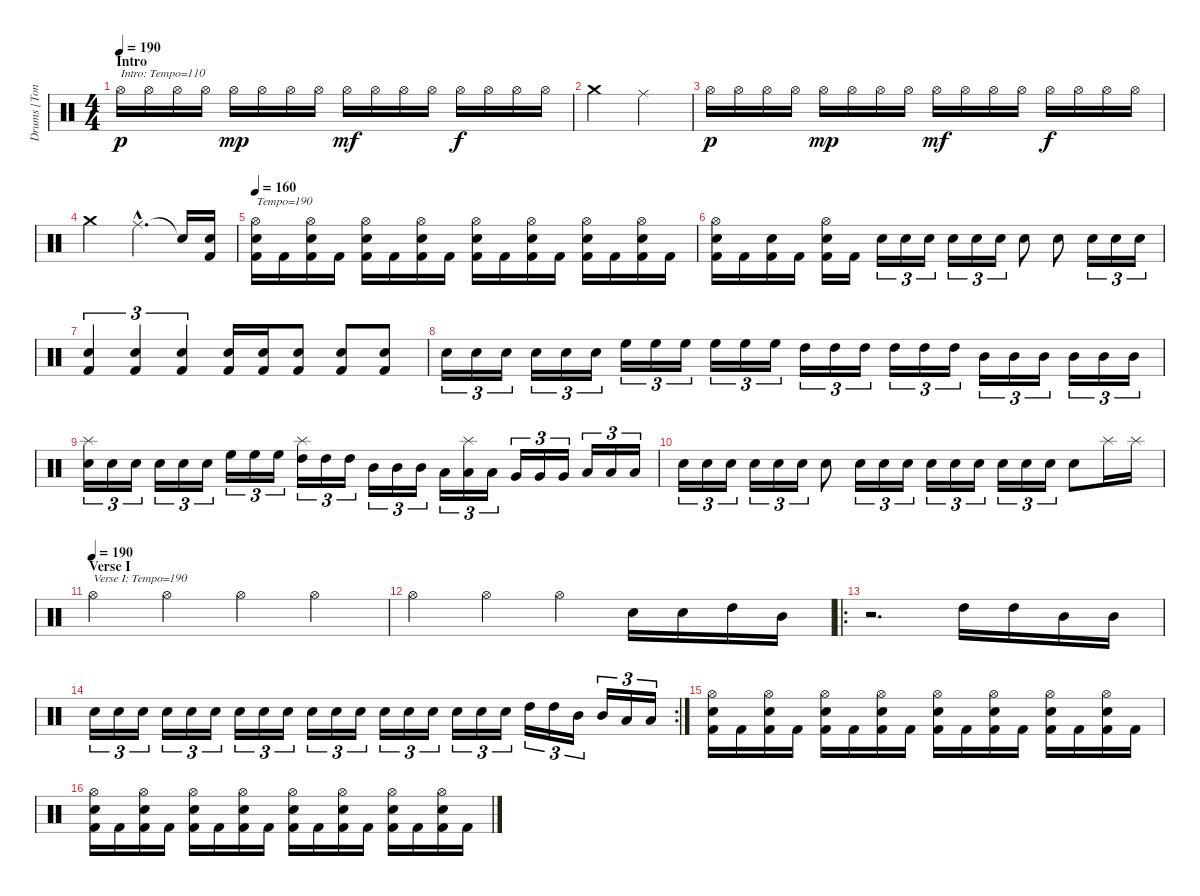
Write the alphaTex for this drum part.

\track ("Drums [Tony Laureano]" "Drums [Ton") {instrument percussion}
\staff {score}
\articulation defaults
\ts (4 4)
\section ("" "Intro")
\tempo 190
\tempo 110
\tempo 190
\clef neutral
\ks c "Hi-Hat (open)".16{txt "Intro: Tempo=110" dy p} "Hi-Hat (open)".16 "Hi-Hat (open)".16 "Hi-Hat (open)".16 "Hi-Hat (open)".16{dy mp} "Hi-Hat (open)".16 "Hi-Hat (open)".16 "Hi-Hat (open)".16 "Hi-Hat (open)".16{dy mf} "Hi-Hat (open)".16 "Hi-Hat (open)".16 "Hi-Hat (open)".16 "Hi-Hat (open)".16{dy f} "Hi-Hat (open)".16 "Hi-Hat (open)".16 "Hi-Hat (open)".16
|
"Crash medium (hit)".2 "Ride (middle)".2 |
"Hi-Hat (open)".16{dy p} "Hi-Hat (open)".16 "Hi-Hat (open)".16 "Hi-Hat (open)".16 "Hi-Hat (open)".16{dy mp} "Hi-Hat (open)".16 "Hi-Hat (open)".16 "Hi-Hat (open)".16 "Hi-Hat (open)".16{dy mf} "Hi-Hat (open)".16 "Hi-Hat (open)".16 "Hi-Hat (open)".16 "Hi-Hat (open)".16{dy f} "Hi-Hat (open)".16 "Hi-Hat (open)".16 "Hi-Hat (open)".16 |
"Crash medium (hit)".2 "Ride (middle)"{hac}.4{d} "Snare (hit)"{t}.16 ("Electric Snare (hit)" "Kick (hit) 2").16 |
\tempo 160
("Hi-Hat (open)" "Electric Snare (hit)" "Kick (hit) 2").16{txt "Tempo=190"} "Kick (hit) 2".16 ("Hi-Hat (open)" "Electric Snare (hit)" "Kick (hit) 2").16 "Kick (hit) 2".16 ("Hi-Hat (open)" "Electric Snare (hit)" "Kick (hit) 2").16 "Kick (hit) 2".16 ("Hi-Hat (open)" "Electric Snare (hit)" "Kick (hit) 2").16 "Kick (hit) 2".16 ("Hi-Hat (open)" "Electric Snare (hit)" "Kick (hit) 2").16 "Kick (hit) 2".16 ("Hi-Hat (open)" "Electric Snare (hit)" "Kick (hit) 2").16 "Kick (hit) 2".16 ("Hi-Hat (open)" "Electric Snare (hit)" "Kick (hit) 2").16 "Kick (hit) 2".16 ("Hi-Hat (open)" "Electric Snare (hit)" "Kick (hit) 2").16 "Kick (hit) 2".16 |
("Hi-Hat (open)" "Electric Snare (hit)" "Kick (hit) 2").16 "Kick (hit) 2".16 ("Electric Snare (hit)" "Kick (hit) 2").16 "Kick (hit) 2".16 ("Hi-Hat (open)" "Electric Snare (hit)" "Kick (hit) 2").16 "Kick (hit) 2".16 "Electric Snare (hit)".16{tu (3 2)} "Electric Snare (hit)".16{tu (3 2)} "Electric Snare (hit)".16{tu (3 2)} "Electric Snare (hit)".16{tu (3 2)} "Electric Snare (hit)".16{tu (3 2)} "Electric Snare (hit)".16{tu (3 2)} "Electric Snare (hit)".8 "Electric Snare (hit)".8 "Electric Snare (hit)".16{tu (3 2)} "Electric Snare (hit)".16{tu (3 2)} "Electric Snare (hit)".16{tu (3 2)} |
("Electric Snare (hit)" "Kick (hit) 2").4{tu (3 2)} ("Electric Snare (hit)" "Kick (hit) 2").4{tu (3 2)} ("Electric Snare (hit)" "Kick (hit) 2").4{tu (3 2)} ("Electric Snare (hit)" "Kick (hit) 2").16 ("Electric Snare (hit)" "Kick (hit) 2").16 ("Electric Snare (hit)" "Kick (hit) 2").8 ("Electric Snare (hit)" "Kick (hit) 2").8 ("Electric Snare (hit)" "Kick (hit) 2").8 |
"Electric Snare (hit)".16{tu (3 2)} "Electric Snare (hit)".16{tu (3 2)} "Electric Snare (hit)".16{tu (3 2)} "Electric Snare (hit)".16{tu (3 2)} "Electric Snare (hit)".16{tu (3 2)} "Electric Snare (hit)".16{tu (3 2)} "High Floor Tom (hit)".16{tu (3 2)} "High Floor Tom (hit)".16{tu (3 2)} "High Floor Tom (hit)".16{tu (3 2)} "High Floor Tom (hit)".16{tu (3 2)} "High Floor Tom (hit)".16{tu (3 2)} "High Floor Tom (hit)".16{tu (3 2)} "High Tom (hit)".16{tu (3 2)} "High Tom (hit)".16{tu (3 2)} "High Tom (hit)".16{tu (3 2)} "High Tom (hit)".16{tu (3 2)} "High Tom (hit)".16{tu (3 2)} "High Tom (hit)".16{tu (3 2)} "Mid Tom (hit)".16{tu (3 2)} "Mid Tom (hit)".16{tu (3 2)} "Mid Tom (hit)".16{tu (3 2)} "Mid Tom (hit)".16{tu (3 2)} "Mid Tom (hit)".16{tu (3 2)} "Mid Tom (hit)".16{tu (3 2)} |
("Splash (hit)" "Electric Snare (hit)").16{tu (3 2)} "Electric Snare (hit)".16{tu (3 2)} "Electric Snare (hit)".16{tu (3 2)} "Electric Snare (hit)".16{tu (3 2)} "Electric Snare (hit)".16{tu (3 2)} "Electric Snare (hit)".16{tu (3 2)} "High Floor Tom (hit)".16{tu (3 2)} "High Floor Tom (hit)".16{tu (3 2)} "High Floor Tom (hit)".16{tu (3 2)} ("Splash (hit)" "High Tom (hit)").16{tu (3 2)} "High Tom (hit)".16{tu (3 2)} "High Tom (hit)".16{tu (3 2)} "Mid Tom (hit)".16{tu (3 2)} "Mid Tom (hit)".16{tu (3 2)} "Mid Tom (hit)".16{tu (3 2)} "Low Tom (hit)".16{tu (3 2)} ("Splash (hit)" "Low Tom (hit)").16{tu (3 2)} "Low Tom (hit)".16{tu (3 2)} "Very Low Tom (hit)".16{tu (3 2)} "Very Low Tom (hit)".16{tu (3 2)} "Very Low Tom (hit)".16{tu (3 2)} "Low Floor Tom (hit)".16{tu (3 2)} "Low Floor Tom (hit)".16{tu (3 2)} "Low Floor Tom (hit)".16{tu (3 2)} |
"Electric Snare (hit)".16{tu (3 2)} "Electric Snare (hit)".16{tu (3 2)} "Electric Snare (hit)".16{tu (3 2)} "Electric Snare (hit)".16{tu (3 2)} "Electric Snare (hit)".16{tu (3 2)} "Electric Snare (hit)".16{tu (3 2)} "Electric Snare (hit)".8 "Electric Snare (hit)".16{tu (3 2)} "Electric Snare (hit)".16{tu (3 2)} "Electric Snare (hit)".16{tu (3 2)} "Electric Snare (hit)".16{tu (3 2)} "Electric Snare (hit)".16{tu (3 2)} "Electric Snare (hit)".16{tu (3 2)} "Electric Snare (hit)".16{tu (3 2)} "Electric Snare (hit)".16{tu (3 2)} "Electric Snare (hit)".16{tu (3 2)} "Electric Snare (hit)".8 "Splash (hit)".16 "Splash (hit)".16 |
\section ("" "Verse I")
\tempo (190)
"Hi-Hat (open)".4{txt "Verse I: Tempo=190"} "Hi-Hat (open)".4 "Hi-Hat (open)".4 "Hi-Hat (open)".4 |
"Hi-Hat (open)".4 "Hi-Hat (open)".4 "Hi-Hat (open)".4 "Electric Snare (hit)".16 "Electric Snare (hit)".16 "High Tom (hit)".16 "Mid Tom (hit)".16 |
\ro
r.2{d} "High Tom (hit)".16 "High Tom (hit)".16 "Mid Tom (hit)".16 "Mid Tom (hit)".16 |
\rc 2 "Electric Snare (hit)".16{tu (3 2)} "Electric Snare (hit)".16{tu (3 2)} "Electric Snare (hit)".16{tu (3 2)} "Electric Snare (hit)".16{tu (3 2)} "Electric Snare (hit)".16{tu (3 2)} "Electric Snare (hit)".16{tu (3 2)} "Electric Snare (hit)".16{tu (3 2)} "Electric Snare (hit)".16{tu (3 2)} "Electric Snare (hit)".16{tu (3 2)} "Electric Snare (hit)".16{tu (3 2)} "Electric Snare (hit)".16{tu (3 2)} "Electric Snare (hit)".16{tu (3 2)} "Electric Snare (hit)".16{tu (3 2)} "Electric Snare (hit)".16{tu (3 2)} "Electric Snare (hit)".16{tu (3 2)} "Electric Snare (hit)".16{tu (3 2)} "Electric Snare (hit)".16{tu (3 2)} "Electric Snare (hit)".16{tu (3 2)} "High Tom (hit)".16{tu (3 2)} "High Tom (hit)".16{tu (3 2)} "Mid Tom (hit)".16{tu (3 2)} "Mid Tom (hit)".16{tu (3 2)} "Low Tom (hit)".16{tu (3 2)} "Low Tom (hit)".16{tu (3 2)}
|
("Hi-Hat (open)" "Electric Snare (hit)" "Kick (hit) 2").16 "Kick (hit) 2".16 ("Hi-Hat (open)" "Electric Snare (hit)" "Kick (hit) 2").16 "Kick (hit) 2".16 ("Hi-Hat (open)" "Electric Snare (hit)" "Kick (hit) 2").16 "Kick (hit) 2".16 ("Hi-Hat (open)" "Electric Snare (hit)" "Kick (hit) 2").16 "Kick (hit) 2".16 ("Hi-Hat (open)" "Electric Snare (hit)" "Kick (hit) 2").16 "Kick (hit) 2".16 ("Hi-Hat (open)" "Electric Snare (hit)" "Kick (hit) 2").16 "Kick (hit) 2".16 ("Hi-Hat (open)" "Electric Snare (hit)" "Kick (hit) 2").16 "Kick (hit) 2".16 ("Hi-Hat (open)" "Electric Snare (hit)" "Kick (hit) 2").16 "Kick (hit) 2".16 |
("Hi-Hat (open)" "Electric Snare (hit)" "Kick (hit) 2").16 "Kick (hit) 2".16 ("Hi-Hat (open)" "Electric Snare (hit)" "Kick (hit) 2").16 "Kick (hit) 2".16 ("Hi-Hat (open)" "Electric Snare (hit)" "Kick (hit) 2").16 "Kick (hit) 2".16 ("Hi-Hat (open)" "Electric Snare (hit)" "Kick (hit) 2").16 "Kick (hit) 2".16 ("Hi-Hat (open)" "Electric Snare (hit)" "Kick (hit) 2").16 "Kick (hit) 2".16 ("Hi-Hat (open)" "Electric Snare (hit)" "Kick (hit) 2").16 "Kick (hit) 2".16 ("Hi-Hat (open)" "Electric Snare (hit)" "Kick (hit) 2").16 "Kick (hit) 2".16 ("Hi-Hat (open)" "Electric Snare (hit)" "Kick (hit) 2").16 "Kick (hit) 2".16
